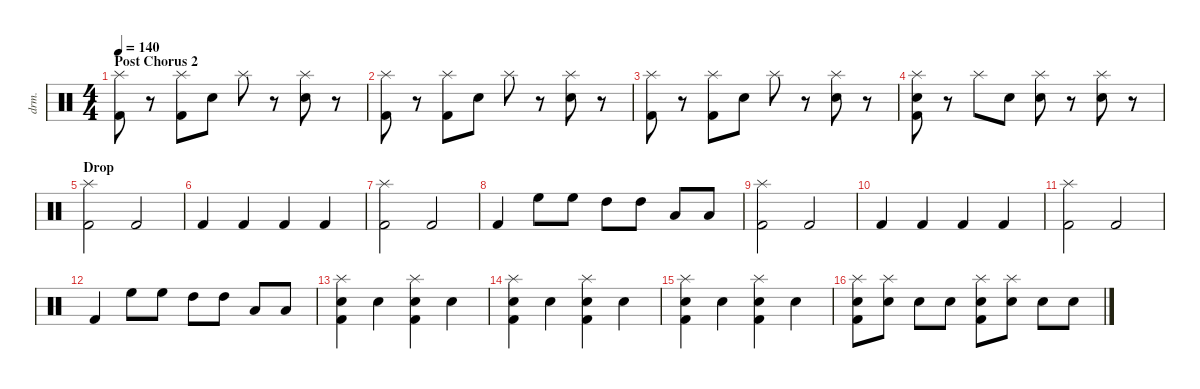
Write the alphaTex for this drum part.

\defaultSystemsLayout 4
\hideDynamics
\bracketExtendMode nobrackets
\otherSystemsTrackNameOrientation horizontal
\track ("Drumkit" "drm.") {instrument percussion}
\staff {score}
\articulation defaults
\ts (4 4)
\section ("" "Post Chorus 2")
\tempo 140
\clef neutral
\ks c
("Kick (hit) 2" "Splash (hit)").8{dy mf beam Down} r.8{beam Down} ("Kick (hit) 2" "Splash (hit)").8{beam Down} "Snare (hit) 2".8{beam Down} "Splash (hit)".8{beam Down} r.8{beam Down} ("Snare (hit) 2" "Splash (hit)").8{beam Down} r.8{beam Down} |
("Kick (hit) 2" "Splash (hit)").8{beam Down} r.8{beam Down} ("Kick (hit) 2" "Splash (hit)").8{beam Down} "Snare (hit) 2".8{beam Down} "Splash (hit)".8{beam Down} r.8{beam Down} ("Snare (hit) 2" "Splash (hit)").8{beam Down} r.8{beam Down} |
("Kick (hit) 2" "Splash (hit)").8{beam Down} r.8{beam Down} ("Kick (hit) 2" "Splash (hit)").8{beam Down} "Snare (hit) 2".8{beam Down} "Splash (hit)".8{beam Down} r.8{beam Down} ("Snare (hit) 2" "Splash (hit)").8{beam Down} r.8{beam Down} |
("Splash (hit)" "Snare (hit) 2" "Kick (hit) 2").8{beam Down} r.8{beam Down} "Splash (hit)".8{beam Down} "Snare (hit) 2".8{beam Down} ("Splash (hit)" "Snare (hit) 2").8{beam Down} r.8{beam Down} ("Snare (hit) 2" "Splash (hit)").8{beam Down} r.8{beam Down} |
\section ("" "Drop")
("Kick (hit) 2" "Splash (hit)").2{beam Down} "Kick (hit) 2".2{beam Up} |
"Kick (hit) 2".4{beam Up} "Kick (hit) 2".4{beam Up} "Kick (hit) 2".4{beam Up} "Kick (hit) 2".4{beam Up} |
("Kick (hit) 2" "Splash (hit)").2{beam Down} "Kick (hit) 2".2{beam Up} |
"Kick (hit) 2".4{beam Up} "High Floor Tom (hit)".8{beam Down} "High Floor Tom (hit)".8{beam Down} "High Tom (hit)".8{beam Down} "High Tom (hit)".8{beam Down} "Low Tom (hit)".8{beam Up} "Low Tom (hit)".8{beam Up} |
("Kick (hit) 2" "Splash (hit)").2{beam Down} "Kick (hit) 2".2{beam Up} |
"Kick (hit) 2".4{beam Up} "Kick (hit) 2".4{beam Up} "Kick (hit) 2".4{beam Up} "Kick (hit) 2".4{beam Up} |
("Kick (hit) 2" "Splash (hit)").2{beam Down} "Kick (hit) 2".2{beam Up} |
"Kick (hit) 2".4{beam Up} "High Floor Tom (hit)".8{beam Down} "High Floor Tom (hit)".8{beam Down} "High Tom (hit)".8{beam Down} "High Tom (hit)".8{beam Down} "Low Tom (hit)".8{beam Up} "Low Tom (hit)".8{beam Up} |
("Kick (hit) 2" "Splash (hit)" "Snare (hit) 2").4{beam Down} "Snare (hit) 2".4{beam Down} ("Kick (hit) 2" "Splash (hit)" "Snare (hit) 2").4{beam Down} "Snare (hit) 2".4{beam Down} |
("Kick (hit) 2" "Splash (hit)" "Snare (hit) 2").4{beam Down} "Snare (hit) 2".4{beam Down} ("Kick (hit) 2" "Splash (hit)" "Snare (hit) 2").4{beam Down} "Snare (hit) 2".4{beam Down} |
("Kick (hit) 2" "Splash (hit)" "Snare (hit) 2").4{beam Down} "Snare (hit) 2".4{beam Down} ("Kick (hit) 2" "Splash (hit)" "Snare (hit) 2").4{beam Down} "Snare (hit) 2".4{beam Down} |
("Kick (hit) 2" "Splash (hit)" "Snare (hit) 2").8{beam Down} ("Splash (hit)" "Snare (hit) 2").8{beam Down} "Snare (hit) 2".8{beam Down} "Snare (hit) 2".8{beam Down} ("Splash (hit)" "Snare (hit) 2" "Kick (hit) 2").8{beam Down} ("Splash (hit)" "Snare (hit) 2").8{beam Down} "Snare (hit) 2".8{beam Down} "Snare (hit) 2".8{beam Down}
